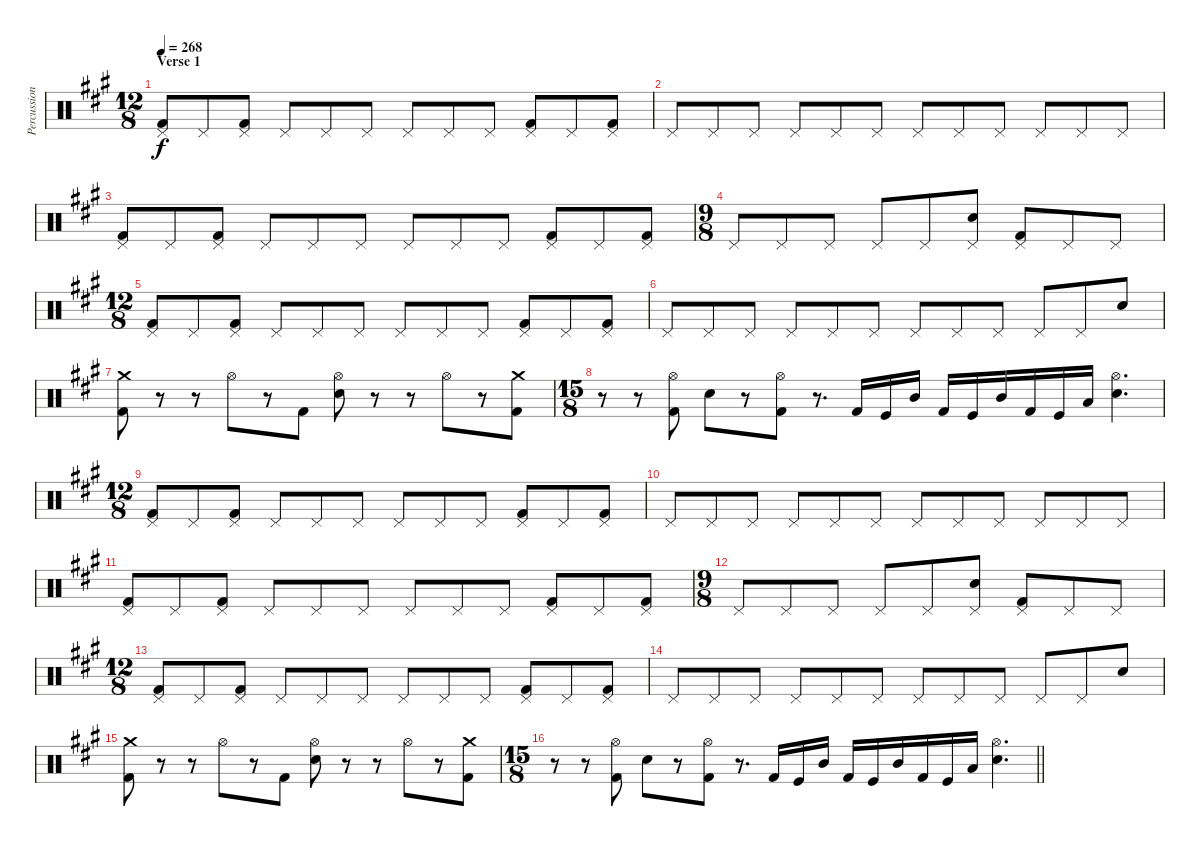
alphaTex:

\track ("Percussion" "Percussion") {instrument percussion}
\staff {score}
\articulation defaults
\ts (12 8)
\section ("" "Verse 1")
\tempo 268
\clef neutral
\ks a
("Pedal Hi-Hat (hit)" "Kick (hit) 2").8{dy f} "Pedal Hi-Hat (hit)".8 ("Pedal Hi-Hat (hit)" "Kick (hit) 2").8 "Pedal Hi-Hat (hit)".8 "Pedal Hi-Hat (hit)".8 "Pedal Hi-Hat (hit)".8 "Pedal Hi-Hat (hit)".8 "Pedal Hi-Hat (hit)".8 "Pedal Hi-Hat (hit)".8 ("Pedal Hi-Hat (hit)" "Kick (hit) 2").8 "Pedal Hi-Hat (hit)".8 ("Pedal Hi-Hat (hit)" "Kick (hit) 2").8 |
"Pedal Hi-Hat (hit)".8 "Pedal Hi-Hat (hit)".8 "Pedal Hi-Hat (hit)".8 "Pedal Hi-Hat (hit)".8 "Pedal Hi-Hat (hit)".8 "Pedal Hi-Hat (hit)".8 "Pedal Hi-Hat (hit)".8 "Pedal Hi-Hat (hit)".8 "Pedal Hi-Hat (hit)".8 "Pedal Hi-Hat (hit)".8 "Pedal Hi-Hat (hit)".8 "Pedal Hi-Hat (hit)".8 |
("Pedal Hi-Hat (hit)" "Kick (hit) 2").8 "Pedal Hi-Hat (hit)".8 ("Pedal Hi-Hat (hit)" "Kick (hit) 2").8 "Pedal Hi-Hat (hit)".8 "Pedal Hi-Hat (hit)".8 "Pedal Hi-Hat (hit)".8 "Pedal Hi-Hat (hit)".8 "Pedal Hi-Hat (hit)".8 "Pedal Hi-Hat (hit)".8 ("Pedal Hi-Hat (hit)" "Kick (hit) 2").8 "Pedal Hi-Hat (hit)".8 ("Pedal Hi-Hat (hit)" "Kick (hit) 2").8 |
\ts (9 8)
"Pedal Hi-Hat (hit)".8 "Pedal Hi-Hat (hit)".8 "Pedal Hi-Hat (hit)".8 "Pedal Hi-Hat (hit)".8 "Pedal Hi-Hat (hit)".8 ("Pedal Hi-Hat (hit)" "Electric Snare (hit)").8 ("Pedal Hi-Hat (hit)" "Kick (hit) 2").8 "Pedal Hi-Hat (hit)".8 "Pedal Hi-Hat (hit)".8 |
\ts (12 8)
("Pedal Hi-Hat (hit)" "Kick (hit) 2").8 "Pedal Hi-Hat (hit)".8 ("Pedal Hi-Hat (hit)" "Kick (hit) 2").8 "Pedal Hi-Hat (hit)".8 "Pedal Hi-Hat (hit)".8 "Pedal Hi-Hat (hit)".8 "Pedal Hi-Hat (hit)".8 "Pedal Hi-Hat (hit)".8 "Pedal Hi-Hat (hit)".8 ("Pedal Hi-Hat (hit)" "Kick (hit) 2").8 "Pedal Hi-Hat (hit)".8 ("Pedal Hi-Hat (hit)" "Kick (hit) 2").8 |
"Pedal Hi-Hat (hit)".8 "Pedal Hi-Hat (hit)".8 "Pedal Hi-Hat (hit)".8 "Pedal Hi-Hat (hit)".8 "Pedal Hi-Hat (hit)".8 "Pedal Hi-Hat (hit)".8 "Pedal Hi-Hat (hit)".8 "Pedal Hi-Hat (hit)".8 "Pedal Hi-Hat (hit)".8 "Pedal Hi-Hat (hit)".8 "Pedal Hi-Hat (hit)".8 "Electric Snare (hit)".8 |
("Crash medium (hit)" "Kick (hit) 2").8 r.8 r.8 "Hi-Hat (open)".8 r.8 "Kick (hit) 2".8 ("Hi-Hat (open)" "Electric Snare (hit)").8 r.8 r.8 "Hi-Hat (open)".8 r.8 ("Crash medium (hit)" "Kick (hit) 2").8 |
\ts (15 8)
r.8 r.8 ("Hi-Hat (open)" "Kick (hit) 2").8 "Electric Snare (hit)".8 r.8 ("Hi-Hat (open)" "Kick (hit) 2").8 r.8{d} "Kick (hit) 2".16 "Kick (hit)".16 "Mid Tom (hit)".16 "Kick (hit) 2".16 "Kick (hit)".16 "Mid Tom (hit)".16 "Kick (hit) 2".16 "Kick (hit)".16 "Low Tom (hit)".16 ("Hi-Hat (open)" "Electric Snare (hit)").4{d} |
\ts (12 8)
("Pedal Hi-Hat (hit)" "Kick (hit) 2").8 "Pedal Hi-Hat (hit)".8 ("Pedal Hi-Hat (hit)" "Kick (hit) 2").8 "Pedal Hi-Hat (hit)".8 "Pedal Hi-Hat (hit)".8 "Pedal Hi-Hat (hit)".8 "Pedal Hi-Hat (hit)".8 "Pedal Hi-Hat (hit)".8 "Pedal Hi-Hat (hit)".8 ("Pedal Hi-Hat (hit)" "Kick (hit) 2").8 "Pedal Hi-Hat (hit)".8 ("Pedal Hi-Hat (hit)" "Kick (hit) 2").8 |
"Pedal Hi-Hat (hit)".8 "Pedal Hi-Hat (hit)".8 "Pedal Hi-Hat (hit)".8 "Pedal Hi-Hat (hit)".8 "Pedal Hi-Hat (hit)".8 "Pedal Hi-Hat (hit)".8 "Pedal Hi-Hat (hit)".8 "Pedal Hi-Hat (hit)".8 "Pedal Hi-Hat (hit)".8 "Pedal Hi-Hat (hit)".8 "Pedal Hi-Hat (hit)".8 "Pedal Hi-Hat (hit)".8 |
("Pedal Hi-Hat (hit)" "Kick (hit) 2").8 "Pedal Hi-Hat (hit)".8 ("Pedal Hi-Hat (hit)" "Kick (hit) 2").8 "Pedal Hi-Hat (hit)".8 "Pedal Hi-Hat (hit)".8 "Pedal Hi-Hat (hit)".8 "Pedal Hi-Hat (hit)".8 "Pedal Hi-Hat (hit)".8 "Pedal Hi-Hat (hit)".8 ("Pedal Hi-Hat (hit)" "Kick (hit) 2").8 "Pedal Hi-Hat (hit)".8 ("Pedal Hi-Hat (hit)" "Kick (hit) 2").8 |
\ts (9 8)
"Pedal Hi-Hat (hit)".8 "Pedal Hi-Hat (hit)".8 "Pedal Hi-Hat (hit)".8 "Pedal Hi-Hat (hit)".8 "Pedal Hi-Hat (hit)".8 ("Pedal Hi-Hat (hit)" "Electric Snare (hit)").8 ("Pedal Hi-Hat (hit)" "Kick (hit) 2").8 "Pedal Hi-Hat (hit)".8 "Pedal Hi-Hat (hit)".8 |
\ts (12 8)
("Pedal Hi-Hat (hit)" "Kick (hit) 2").8 "Pedal Hi-Hat (hit)".8 ("Pedal Hi-Hat (hit)" "Kick (hit) 2").8 "Pedal Hi-Hat (hit)".8 "Pedal Hi-Hat (hit)".8 "Pedal Hi-Hat (hit)".8 "Pedal Hi-Hat (hit)".8 "Pedal Hi-Hat (hit)".8 "Pedal Hi-Hat (hit)".8 ("Pedal Hi-Hat (hit)" "Kick (hit) 2").8 "Pedal Hi-Hat (hit)".8 ("Pedal Hi-Hat (hit)" "Kick (hit) 2").8 |
"Pedal Hi-Hat (hit)".8 "Pedal Hi-Hat (hit)".8 "Pedal Hi-Hat (hit)".8 "Pedal Hi-Hat (hit)".8 "Pedal Hi-Hat (hit)".8 "Pedal Hi-Hat (hit)".8 "Pedal Hi-Hat (hit)".8 "Pedal Hi-Hat (hit)".8 "Pedal Hi-Hat (hit)".8 "Pedal Hi-Hat (hit)".8 "Pedal Hi-Hat (hit)".8 "Electric Snare (hit)".8 |
("Crash medium (hit)" "Kick (hit) 2").8 r.8 r.8 "Hi-Hat (open)".8 r.8 "Kick (hit) 2".8 ("Hi-Hat (open)" "Electric Snare (hit)").8 r.8 r.8 "Hi-Hat (open)".8 r.8 ("Crash medium (hit)" "Kick (hit) 2").8 |
\ts (15 8)
\barLineRight lightlight
r.8 r.8 ("Hi-Hat (open)" "Kick (hit) 2").8 "Electric Snare (hit)".8 r.8 ("Hi-Hat (open)" "Kick (hit) 2").8 r.8{d} "Kick (hit) 2".16 "Kick (hit)".16 "Mid Tom (hit)".16 "Kick (hit) 2".16 "Kick (hit)".16 "Mid Tom (hit)".16 "Kick (hit) 2".16 "Kick (hit)".16 "Low Tom (hit)".16 ("Hi-Hat (open)" "Electric Snare (hit)").4{d}
